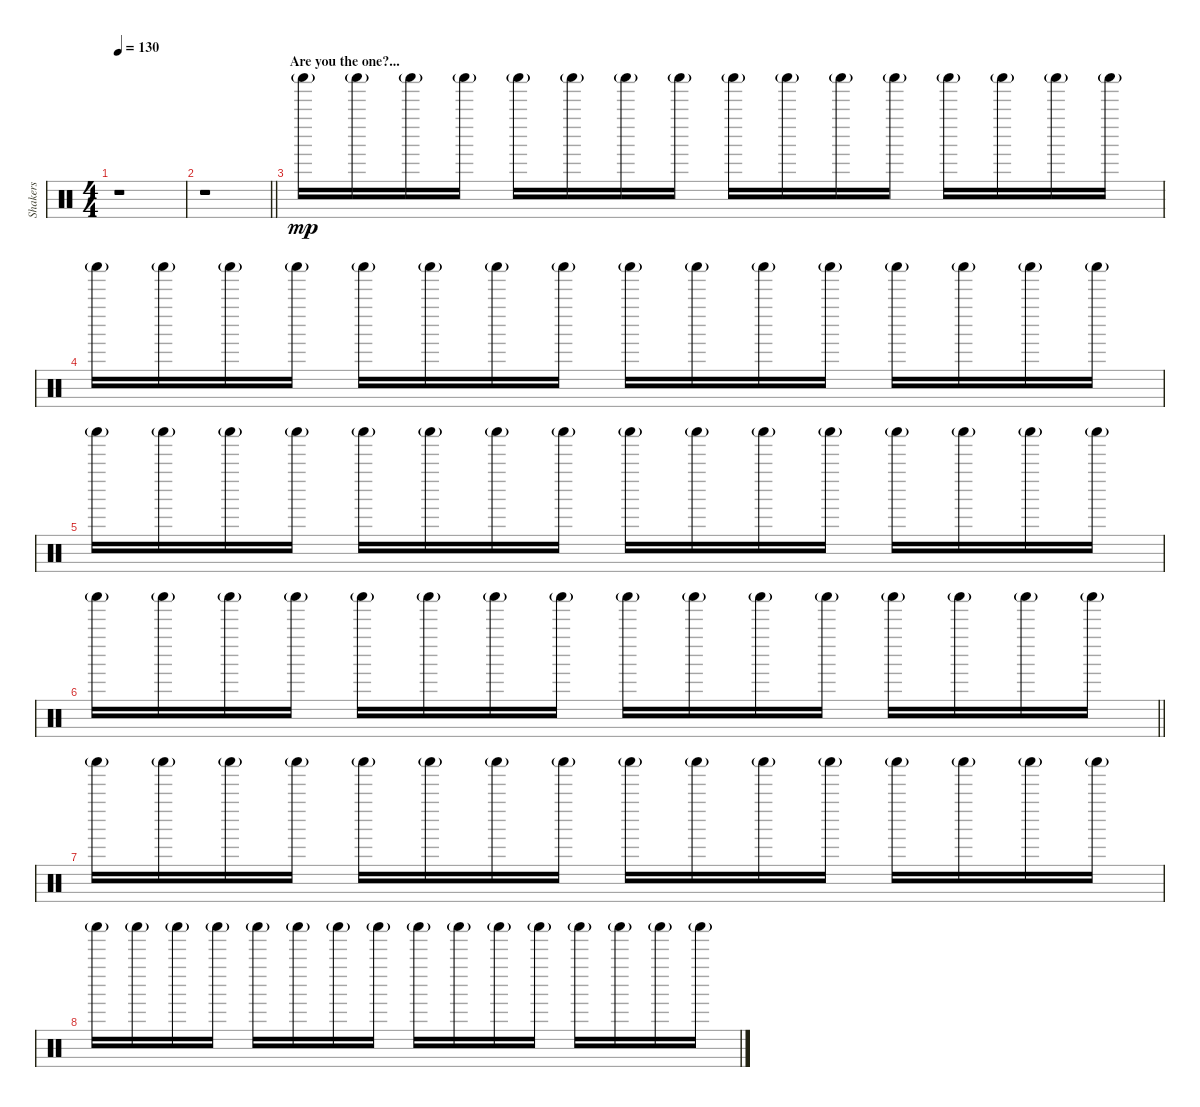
\track ("Shakers" "Shakers") {instrument percussion}
\staff {score}
\articulation defaults
\ts (4 4)
\tempo 130
\clef neutral
\ks c
r.1{dy mp} |
\barLineRight lightlight
r.1 |
\section ("" "Are you the one?...")
"Shaker (hit)"{g}.16 "Shaker (hit)"{g}.16 "Shaker (hit)"{g}.16 "Shaker (hit)"{g}.16 "Shaker (hit)"{g}.16 "Shaker (hit)"{g}.16 "Shaker (hit)"{g}.16 "Shaker (hit)"{g}.16 "Shaker (hit)"{g}.16 "Shaker (hit)"{g}.16 "Shaker (hit)"{g}.16 "Shaker (hit)"{g}.16 "Shaker (hit)"{g}.16 "Shaker (hit)"{g}.16 "Shaker (hit)"{g}.16 "Shaker (hit)"{g}.16 |
"Shaker (hit)"{g}.16 "Shaker (hit)"{g}.16 "Shaker (hit)"{g}.16 "Shaker (hit)"{g}.16 "Shaker (hit)"{g}.16 "Shaker (hit)"{g}.16 "Shaker (hit)"{g}.16 "Shaker (hit)"{g}.16 "Shaker (hit)"{g}.16 "Shaker (hit)"{g}.16 "Shaker (hit)"{g}.16 "Shaker (hit)"{g}.16 "Shaker (hit)"{g}.16 "Shaker (hit)"{g}.16 "Shaker (hit)"{g}.16 "Shaker (hit)"{g}.16 |
"Shaker (hit)"{g}.16 "Shaker (hit)"{g}.16 "Shaker (hit)"{g}.16 "Shaker (hit)"{g}.16 "Shaker (hit)"{g}.16 "Shaker (hit)"{g}.16 "Shaker (hit)"{g}.16 "Shaker (hit)"{g}.16 "Shaker (hit)"{g}.16 "Shaker (hit)"{g}.16 "Shaker (hit)"{g}.16 "Shaker (hit)"{g}.16 "Shaker (hit)"{g}.16 "Shaker (hit)"{g}.16 "Shaker (hit)"{g}.16 "Shaker (hit)"{g}.16 |
\barLineRight lightlight "Shaker (hit)"{g}.16 "Shaker (hit)"{g}.16 "Shaker (hit)"{g}.16 "Shaker (hit)"{g}.16 "Shaker (hit)"{g}.16 "Shaker (hit)"{g}.16 "Shaker (hit)"{g}.16 "Shaker (hit)"{g}.16 "Shaker (hit)"{g}.16 "Shaker (hit)"{g}.16 "Shaker (hit)"{g}.16 "Shaker (hit)"{g}.16 "Shaker (hit)"{g}.16 "Shaker (hit)"{g}.16 "Shaker (hit)"{g}.16 "Shaker (hit)"{g}.16
|
"Shaker (hit)"{g}.16 "Shaker (hit)"{g}.16 "Shaker (hit)"{g}.16 "Shaker (hit)"{g}.16 "Shaker (hit)"{g}.16 "Shaker (hit)"{g}.16 "Shaker (hit)"{g}.16 "Shaker (hit)"{g}.16 "Shaker (hit)"{g}.16 "Shaker (hit)"{g}.16 "Shaker (hit)"{g}.16 "Shaker (hit)"{g}.16 "Shaker (hit)"{g}.16 "Shaker (hit)"{g}.16 "Shaker (hit)"{g}.16 "Shaker (hit)"{g}.16 |
"Shaker (hit)"{g}.16 "Shaker (hit)"{g}.16 "Shaker (hit)"{g}.16 "Shaker (hit)"{g}.16 "Shaker (hit)"{g}.16 "Shaker (hit)"{g}.16 "Shaker (hit)"{g}.16 "Shaker (hit)"{g}.16 "Shaker (hit)"{g}.16 "Shaker (hit)"{g}.16 "Shaker (hit)"{g}.16 "Shaker (hit)"{g}.16 "Shaker (hit)"{g}.16 "Shaker (hit)"{g}.16 "Shaker (hit)"{g}.16 "Shaker (hit)"{g}.16
